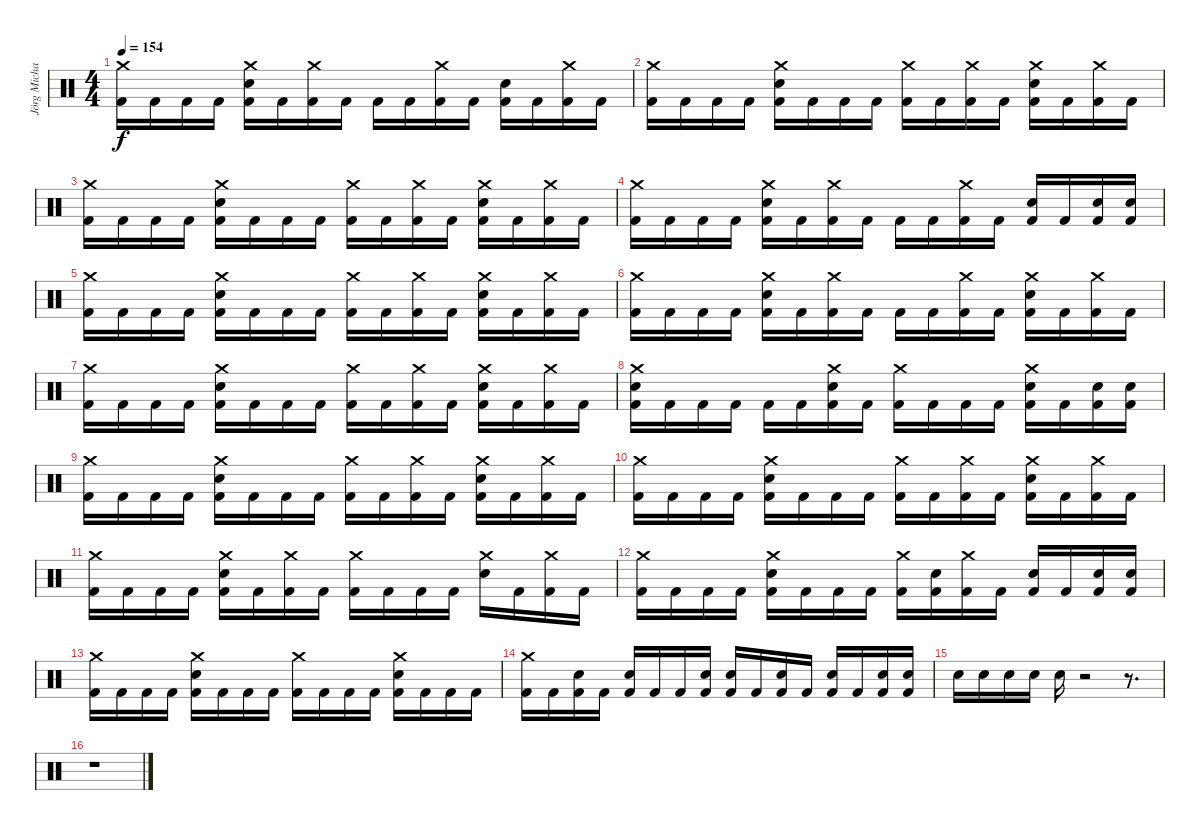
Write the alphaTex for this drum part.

\track ("Jörg Michael" "Jörg Micha") {instrument percussion}
\staff {score}
\articulation defaults
\ts (4 4)
\tempo 154
\clef neutral
\ks c
("Crash medium (hit)" "Kick (hit) 2").16{dy f} "Kick (hit) 2".16 "Kick (hit) 2".16 "Kick (hit) 2".16 ("Crash medium (hit)" "Kick (hit) 2" "Snare (hit) 2").16 "Kick (hit) 2".16 ("Crash medium (hit)" "Kick (hit) 2").16 "Kick (hit) 2".16 "Kick (hit) 2".16 "Kick (hit) 2".16 ("Crash medium (hit)" "Kick (hit) 2").16 "Kick (hit) 2".16 ("Kick (hit) 2" "Snare (hit) 2").16 "Kick (hit) 2".16 ("Crash medium (hit)" "Kick (hit) 2").16 "Kick (hit) 2".16 |
("Kick (hit) 2" "Crash medium (hit)").16 "Kick (hit) 2".16 "Kick (hit) 2".16 "Kick (hit) 2".16 ("Kick (hit) 2" "Snare (hit) 2" "Crash medium (hit)").16 "Kick (hit) 2".16 "Kick (hit) 2".16 "Kick (hit) 2".16 ("Kick (hit) 2" "Crash medium (hit)").16 "Kick (hit) 2".16 ("Crash medium (hit)" "Kick (hit) 2").16 "Kick (hit) 2".16 ("Kick (hit) 2" "Snare (hit) 2" "Crash medium (hit)").16 "Kick (hit) 2".16 ("Crash medium (hit)" "Kick (hit) 2").16 "Kick (hit) 2".16 |
("Kick (hit) 2" "Crash medium (hit)").16 "Kick (hit) 2".16 "Kick (hit) 2".16 "Kick (hit) 2".16 ("Kick (hit) 2" "Snare (hit) 2" "Crash medium (hit)").16 "Kick (hit) 2".16 "Kick (hit) 2".16 "Kick (hit) 2".16 ("Kick (hit) 2" "Crash medium (hit)").16 "Kick (hit) 2".16 ("Crash medium (hit)" "Kick (hit) 2").16 "Kick (hit) 2".16 ("Kick (hit) 2" "Snare (hit) 2" "Crash medium (hit)").16 "Kick (hit) 2".16 ("Crash medium (hit)" "Kick (hit) 2").16 "Kick (hit) 2".16 |
("Kick (hit) 2" "Crash medium (hit)").16 "Kick (hit) 2".16 "Kick (hit) 2".16 "Kick (hit) 2".16 ("Crash medium (hit)" "Kick (hit) 2" "Snare (hit) 2").16 "Kick (hit) 2".16 ("Crash medium (hit)" "Kick (hit) 2").16 "Kick (hit) 2".16 "Kick (hit) 2".16 "Kick (hit) 2".16 ("Crash medium (hit)" "Kick (hit) 2").16 "Kick (hit) 2".16 ("Kick (hit) 2" "Snare (hit) 2").16 "Kick (hit) 2".16 ("Snare (hit) 2" "Kick (hit) 2").16 ("Snare (hit) 2" "Kick (hit) 2").16 |
("Crash medium (hit)" "Kick (hit) 2").16 "Kick (hit) 2".16 "Kick (hit) 2".16 "Kick (hit) 2".16 ("Snare (hit) 2" "Crash medium (hit)" "Kick (hit) 2").16 "Kick (hit) 2".16 "Kick (hit) 2".16 "Kick (hit) 2".16 ("Crash medium (hit)" "Kick (hit) 2").16 "Kick (hit) 2".16 ("Crash medium (hit)" "Kick (hit) 2").16 "Kick (hit) 2".16 ("Crash medium (hit)" "Snare (hit) 2" "Kick (hit) 2").16 "Kick (hit) 2".16 ("Crash medium (hit)" "Kick (hit) 2").16 "Kick (hit) 2".16 |
("Crash medium (hit)" "Kick (hit) 2").16 "Kick (hit) 2".16 "Kick (hit) 2".16 "Kick (hit) 2".16 ("Snare (hit) 2" "Crash medium (hit)" "Kick (hit) 2").16 "Kick (hit) 2".16 ("Crash medium (hit)" "Kick (hit) 2").16 "Kick (hit) 2".16 "Kick (hit) 2".16 "Kick (hit) 2".16 ("Crash medium (hit)" "Kick (hit) 2").16 "Kick (hit) 2".16 ("Snare (hit) 2" "Crash medium (hit)" "Kick (hit) 2").16 "Kick (hit) 2".16 ("Crash medium (hit)" "Kick (hit) 2").16 "Kick (hit) 2".16 |
("Crash medium (hit)" "Kick (hit) 2").16 "Kick (hit) 2".16 "Kick (hit) 2".16 "Kick (hit) 2".16 ("Snare (hit) 2" "Crash medium (hit)" "Kick (hit) 2").16 "Kick (hit) 2".16 "Kick (hit) 2".16 "Kick (hit) 2".16 ("Crash medium (hit)" "Kick (hit) 2").16 "Kick (hit) 2".16 ("Crash medium (hit)" "Kick (hit) 2").16 "Kick (hit) 2".16 ("Snare (hit) 2" "Crash medium (hit)" "Kick (hit) 2").16 "Kick (hit) 2".16 ("Crash medium (hit)" "Kick (hit) 2").16 "Kick (hit) 2".16 |
("Snare (hit) 2" "Crash medium (hit)" "Kick (hit) 2").16 "Kick (hit) 2".16 "Kick (hit) 2".16 "Kick (hit) 2".16 "Kick (hit) 2".16 "Kick (hit) 2".16 ("Snare (hit) 2" "Crash medium (hit)" "Kick (hit) 2").16 "Kick (hit) 2".16 ("Crash medium (hit)" "Kick (hit) 2").16 "Kick (hit) 2".16 "Kick (hit) 2".16 "Kick (hit) 2".16 ("Snare (hit) 2" "Crash medium (hit)" "Kick (hit) 2").16 "Kick (hit) 2".16 ("Snare (hit) 2" "Kick (hit) 2").16 ("Snare (hit) 2" "Kick (hit) 2").16 |
("Crash medium (hit)" "Kick (hit) 2").16 "Kick (hit) 2".16 "Kick (hit) 2".16 "Kick (hit) 2".16 ("Snare (hit) 2" "Crash medium (hit)" "Kick (hit) 2").16 "Kick (hit) 2".16 "Kick (hit) 2".16 "Kick (hit) 2".16 ("Crash medium (hit)" "Kick (hit) 2").16 "Kick (hit) 2".16 ("Crash medium (hit)" "Kick (hit) 2").16 "Kick (hit) 2".16 ("Snare (hit) 2" "Crash medium (hit)" "Kick (hit) 2").16 "Kick (hit) 2".16 ("Crash medium (hit)" "Kick (hit) 2").16 "Kick (hit) 2".16 |
("Crash medium (hit)" "Kick (hit) 2").16 "Kick (hit) 2".16 "Kick (hit) 2".16 "Kick (hit) 2".16 ("Snare (hit) 2" "Crash medium (hit)" "Kick (hit) 2").16 "Kick (hit) 2".16 "Kick (hit) 2".16 "Kick (hit) 2".16 ("Crash medium (hit)" "Kick (hit) 2").16 "Kick (hit) 2".16 ("Crash medium (hit)" "Kick (hit) 2").16 "Kick (hit) 2".16 ("Snare (hit) 2" "Crash medium (hit)" "Kick (hit) 2").16 "Kick (hit) 2".16 ("Crash medium (hit)" "Kick (hit) 2").16 "Kick (hit) 2".16 |
("Crash medium (hit)" "Kick (hit) 2").16 "Kick (hit) 2".16 "Kick (hit) 2".16 "Kick (hit) 2".16 ("Snare (hit) 2" "Crash medium (hit)" "Kick (hit) 2").16 "Kick (hit) 2".16 ("Crash medium (hit)" "Kick (hit) 2").16 "Kick (hit) 2".16 ("Crash medium (hit)" "Kick (hit) 2").16 "Kick (hit) 2".16 "Kick (hit) 2".16 "Kick (hit) 2".16 ("Snare (hit) 2" "Crash medium (hit)").16 "Kick (hit) 2".16 ("Crash medium (hit)" "Kick (hit) 2").16 "Kick (hit) 2".16 |
("Crash medium (hit)" "Kick (hit) 2").16 "Kick (hit) 2".16 "Kick (hit) 2".16 "Kick (hit) 2".16 ("Snare (hit) 2" "Crash medium (hit)" "Kick (hit) 2").16 "Kick (hit) 2".16 "Kick (hit) 2".16 "Kick (hit) 2".16 ("Crash medium (hit)" "Kick (hit) 2").16 ("Snare (hit) 2" "Kick (hit) 2").16 ("Crash medium (hit)" "Kick (hit) 2").16 "Kick (hit) 2".16 ("Snare (hit) 2" "Kick (hit) 2").16 "Kick (hit) 2".16 ("Snare (hit) 2" "Kick (hit) 2").16 ("Snare (hit) 2" "Kick (hit) 2").16 |
("Crash medium (hit)" "Kick (hit) 2").16 "Kick (hit) 2".16 "Kick (hit) 2".16 "Kick (hit) 2".16 ("Snare (hit) 2" "Crash medium (hit)" "Kick (hit) 2").16 "Kick (hit) 2".16 "Kick (hit) 2".16 "Kick (hit) 2".16 ("Crash medium (hit)" "Kick (hit) 2").16 "Kick (hit) 2".16 "Kick (hit) 2".16 "Kick (hit) 2".16 ("Snare (hit) 2" "Crash medium (hit)" "Kick (hit) 2").16 "Kick (hit) 2".16 "Kick (hit) 2".16 "Kick (hit) 2".16 |
("Crash medium (hit)" "Kick (hit) 2").16 "Kick (hit) 2".16 ("Snare (hit) 2" "Kick (hit) 2").16 "Kick (hit) 2".16 ("Snare (hit) 2" "Kick (hit) 2").16 "Kick (hit) 2".16 "Kick (hit) 2".16 ("Snare (hit) 2" "Kick (hit) 2").16 ("Snare (hit) 2" "Kick (hit) 2").16 "Kick (hit) 2".16 ("Snare (hit) 2" "Kick (hit) 2").16 "Kick (hit) 2".16 ("Snare (hit) 2" "Kick (hit) 2").16 "Kick (hit) 2".16 ("Snare (hit) 2" "Kick (hit) 2").16 ("Snare (hit) 2" "Kick (hit) 2").16 |
"Snare (hit) 2".16 "Snare (hit) 2".16 "Snare (hit) 2".16 "Snare (hit) 2".16 "Snare (hit) 2".16 r.2 r.8{d} |
r.1
